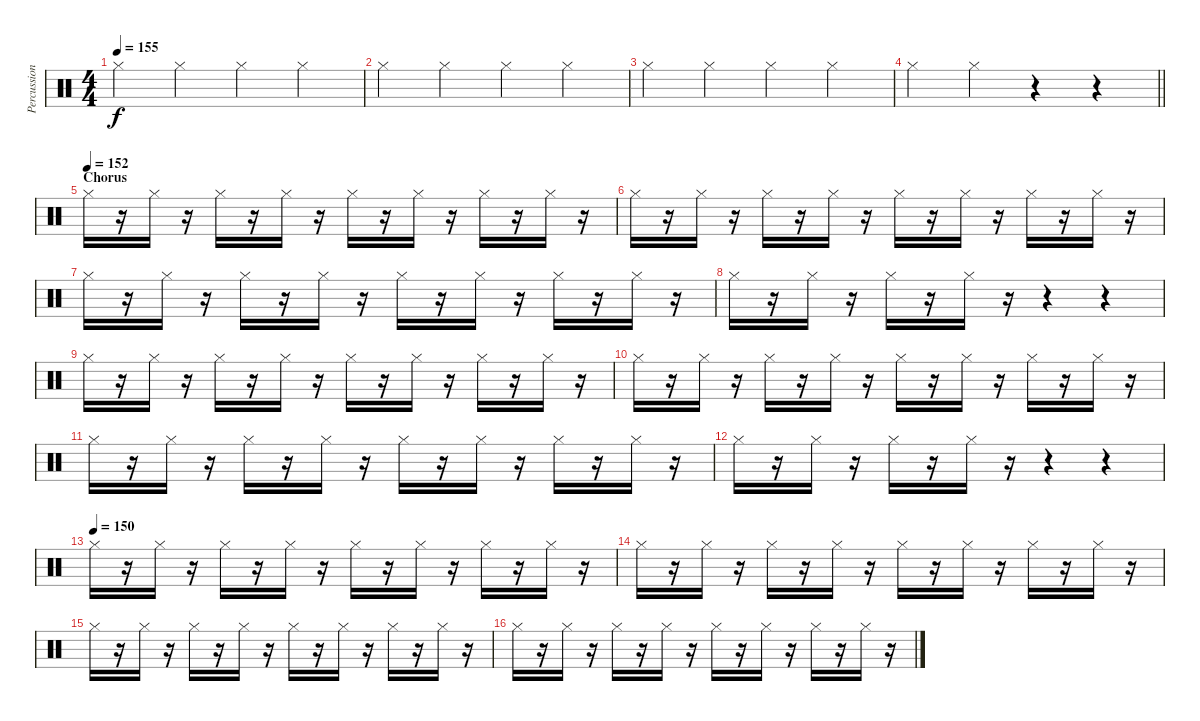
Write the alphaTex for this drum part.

\track ("Percussion" "Percussion") {instrument percussion}
\staff {score}
\articulation defaults
\ts (4 4)
\tempo 155
\clef neutral
\ks c "Hi-Hat (closed)".4{dy f} "Hi-Hat (closed)".4 "Hi-Hat (closed)".4 "Hi-Hat (closed)".4
|
"Hi-Hat (closed)".4 "Hi-Hat (closed)".4 "Hi-Hat (closed)".4 "Hi-Hat (closed)".4 |
"Hi-Hat (closed)".4 "Hi-Hat (closed)".4 "Hi-Hat (closed)".4 "Hi-Hat (closed)".4 |
\barLineRight lightlight "Hi-Hat (closed)".4 "Hi-Hat (closed)".4
r.4 r.4 |
\section ("" "Chorus")
\tempo (152)
"Hi-Hat (closed)".16 r.16 "Hi-Hat (closed)".16 r.16 "Hi-Hat (closed)".16 r.16 "Hi-Hat (closed)".16 r.16 "Hi-Hat (closed)".16 r.16 "Hi-Hat (closed)".16 r.16 "Hi-Hat (closed)".16 r.16 "Hi-Hat (closed)".16 r.16 |
"Hi-Hat (closed)".16 r.16 "Hi-Hat (closed)".16 r.16 "Hi-Hat (closed)".16 r.16 "Hi-Hat (closed)".16 r.16 "Hi-Hat (closed)".16 r.16 "Hi-Hat (closed)".16 r.16 "Hi-Hat (closed)".16 r.16 "Hi-Hat (closed)".16 r.16 |
"Hi-Hat (closed)".16 r.16 "Hi-Hat (closed)".16 r.16 "Hi-Hat (closed)".16 r.16 "Hi-Hat (closed)".16 r.16 "Hi-Hat (closed)".16 r.16 "Hi-Hat (closed)".16 r.16 "Hi-Hat (closed)".16 r.16 "Hi-Hat (closed)".16 r.16 |
"Hi-Hat (closed)".16 r.16 "Hi-Hat (closed)".16 r.16 "Hi-Hat (closed)".16 r.16 "Hi-Hat (closed)".16 r.16 r.4 r.4 |
"Hi-Hat (closed)".16 r.16 "Hi-Hat (closed)".16 r.16 "Hi-Hat (closed)".16 r.16 "Hi-Hat (closed)".16 r.16 "Hi-Hat (closed)".16 r.16 "Hi-Hat (closed)".16 r.16 "Hi-Hat (closed)".16 r.16 "Hi-Hat (closed)".16 r.16 |
"Hi-Hat (closed)".16 r.16 "Hi-Hat (closed)".16 r.16 "Hi-Hat (closed)".16 r.16 "Hi-Hat (closed)".16 r.16 "Hi-Hat (closed)".16 r.16 "Hi-Hat (closed)".16 r.16 "Hi-Hat (closed)".16 r.16 "Hi-Hat (closed)".16 r.16 |
"Hi-Hat (closed)".16 r.16 "Hi-Hat (closed)".16 r.16 "Hi-Hat (closed)".16 r.16 "Hi-Hat (closed)".16 r.16 "Hi-Hat (closed)".16 r.16 "Hi-Hat (closed)".16 r.16 "Hi-Hat (closed)".16 r.16 "Hi-Hat (closed)".16 r.16 |
"Hi-Hat (closed)".16 r.16 "Hi-Hat (closed)".16 r.16 "Hi-Hat (closed)".16 r.16 "Hi-Hat (closed)".16 r.16 r.4 r.4 |
\tempo (150)
"Hi-Hat (closed)".16 r.16 "Hi-Hat (closed)".16 r.16 "Hi-Hat (closed)".16 r.16 "Hi-Hat (closed)".16 r.16 "Hi-Hat (closed)".16 r.16 "Hi-Hat (closed)".16 r.16 "Hi-Hat (closed)".16 r.16 "Hi-Hat (closed)".16 r.16 |
"Hi-Hat (closed)".16 r.16 "Hi-Hat (closed)".16 r.16 "Hi-Hat (closed)".16 r.16 "Hi-Hat (closed)".16 r.16 "Hi-Hat (closed)".16 r.16 "Hi-Hat (closed)".16 r.16 "Hi-Hat (closed)".16 r.16 "Hi-Hat (closed)".16 r.16 |
"Hi-Hat (closed)".16 r.16 "Hi-Hat (closed)".16 r.16 "Hi-Hat (closed)".16 r.16 "Hi-Hat (closed)".16 r.16 "Hi-Hat (closed)".16 r.16 "Hi-Hat (closed)".16 r.16 "Hi-Hat (closed)".16 r.16 "Hi-Hat (closed)".16 r.16 |
"Hi-Hat (closed)".16 r.16 "Hi-Hat (closed)".16 r.16 "Hi-Hat (closed)".16 r.16 "Hi-Hat (closed)".16 r.16 "Hi-Hat (closed)".16 r.16 "Hi-Hat (closed)".16 r.16 "Hi-Hat (closed)".16 r.16 "Hi-Hat (closed)".16 r.16
